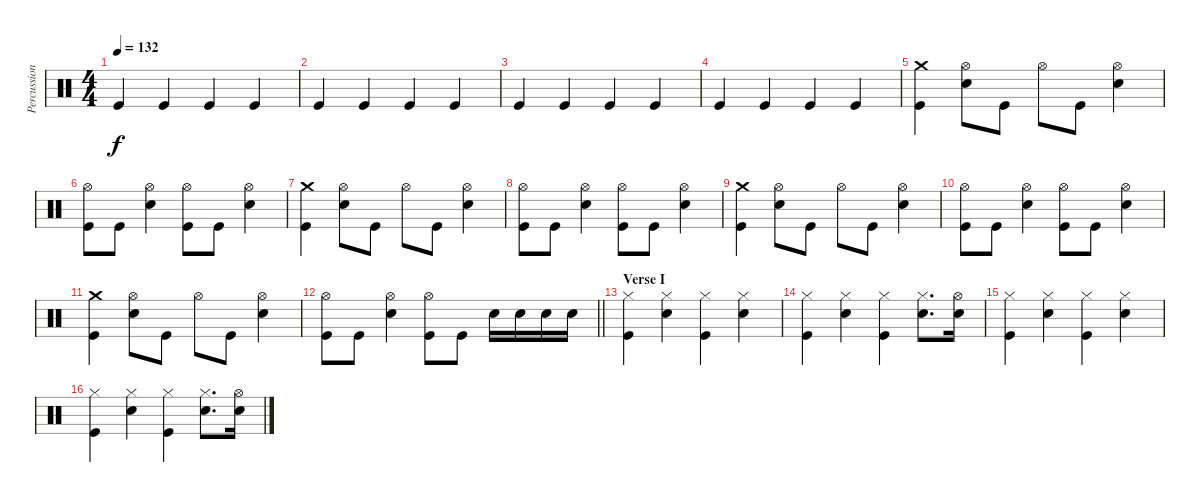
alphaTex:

\track ("Percussion" "Percussion") {instrument percussion}
\staff {score}
\articulation defaults
\ts (4 4)
\tempo 132
\clef neutral
\ks c "Kick (hit)".4{dy f} "Kick (hit)".4 "Kick (hit)".4 "Kick (hit)".4
|
"Kick (hit)".4 "Kick (hit)".4 "Kick (hit)".4 "Kick (hit)".4 |
"Kick (hit)".4 "Kick (hit)".4 "Kick (hit)".4 "Kick (hit)".4 |
"Kick (hit)".4 "Kick (hit)".4 "Kick (hit)".4 "Kick (hit)".4 |
("Crash medium (hit)" "Kick (hit)").4 ("Hi-Hat (open)" "Electric Snare (hit)").8 "Kick (hit)".8 "Hi-Hat (open)".8 "Kick (hit)".8 ("Hi-Hat (open)" "Electric Snare (hit)").4 |
("Hi-Hat (open)" "Kick (hit)").8 "Kick (hit)".8 ("Hi-Hat (open)" "Electric Snare (hit)").4 ("Hi-Hat (open)" "Kick (hit)").8 "Kick (hit)".8 ("Hi-Hat (open)" "Electric Snare (hit)").4 |
("Crash medium (hit)" "Kick (hit)").4 ("Hi-Hat (open)" "Electric Snare (hit)").8 "Kick (hit)".8 "Hi-Hat (open)".8 "Kick (hit)".8 ("Hi-Hat (open)" "Electric Snare (hit)").4 |
("Hi-Hat (open)" "Kick (hit)").8 "Kick (hit)".8 ("Hi-Hat (open)" "Electric Snare (hit)").4 ("Hi-Hat (open)" "Kick (hit)").8 "Kick (hit)".8 ("Hi-Hat (open)" "Electric Snare (hit)").4 |
("Crash medium (hit)" "Kick (hit)").4 ("Hi-Hat (open)" "Electric Snare (hit)").8 "Kick (hit)".8 "Hi-Hat (open)".8 "Kick (hit)".8 ("Hi-Hat (open)" "Electric Snare (hit)").4 |
("Hi-Hat (open)" "Kick (hit)").8 "Kick (hit)".8 ("Hi-Hat (open)" "Electric Snare (hit)").4 ("Hi-Hat (open)" "Kick (hit)").8 "Kick (hit)".8 ("Hi-Hat (open)" "Electric Snare (hit)").4 |
("Crash medium (hit)" "Kick (hit)").4 ("Hi-Hat (open)" "Electric Snare (hit)").8 "Kick (hit)".8 "Hi-Hat (open)".8 "Kick (hit)".8 ("Hi-Hat (open)" "Electric Snare (hit)").4 |
\barLineRight lightlight
("Hi-Hat (open)" "Kick (hit)").8 "Kick (hit)".8 ("Hi-Hat (open)" "Electric Snare (hit)").4 ("Hi-Hat (open)" "Kick (hit)").8 "Kick (hit)".8 "Electric Snare (hit)".16 "Electric Snare (hit)".16 "Electric Snare (hit)".16 "Electric Snare (hit)".16 |
\section ("" "Verse I")
("Hi-Hat (closed)" "Kick (hit)").4 ("Hi-Hat (closed)" "Electric Snare (hit)").4 ("Hi-Hat (closed)" "Kick (hit)").4 ("Hi-Hat (closed)" "Electric Snare (hit)").4 |
("Hi-Hat (closed)" "Kick (hit)").4 ("Hi-Hat (closed)" "Electric Snare (hit)").4 ("Hi-Hat (closed)" "Kick (hit)").4 ("Hi-Hat (closed)" "Electric Snare (hit)").8{d} ("Hi-Hat (open)" "Electric Snare (hit)").16 |
("Hi-Hat (closed)" "Kick (hit)").4 ("Hi-Hat (closed)" "Electric Snare (hit)").4 ("Hi-Hat (closed)" "Kick (hit)").4 ("Hi-Hat (closed)" "Electric Snare (hit)").4 |
("Hi-Hat (closed)" "Kick (hit)").4 ("Hi-Hat (closed)" "Electric Snare (hit)").4 ("Hi-Hat (closed)" "Kick (hit)").4 ("Hi-Hat (closed)" "Electric Snare (hit)").8{d} ("Hi-Hat (open)" "Electric Snare (hit)").16
